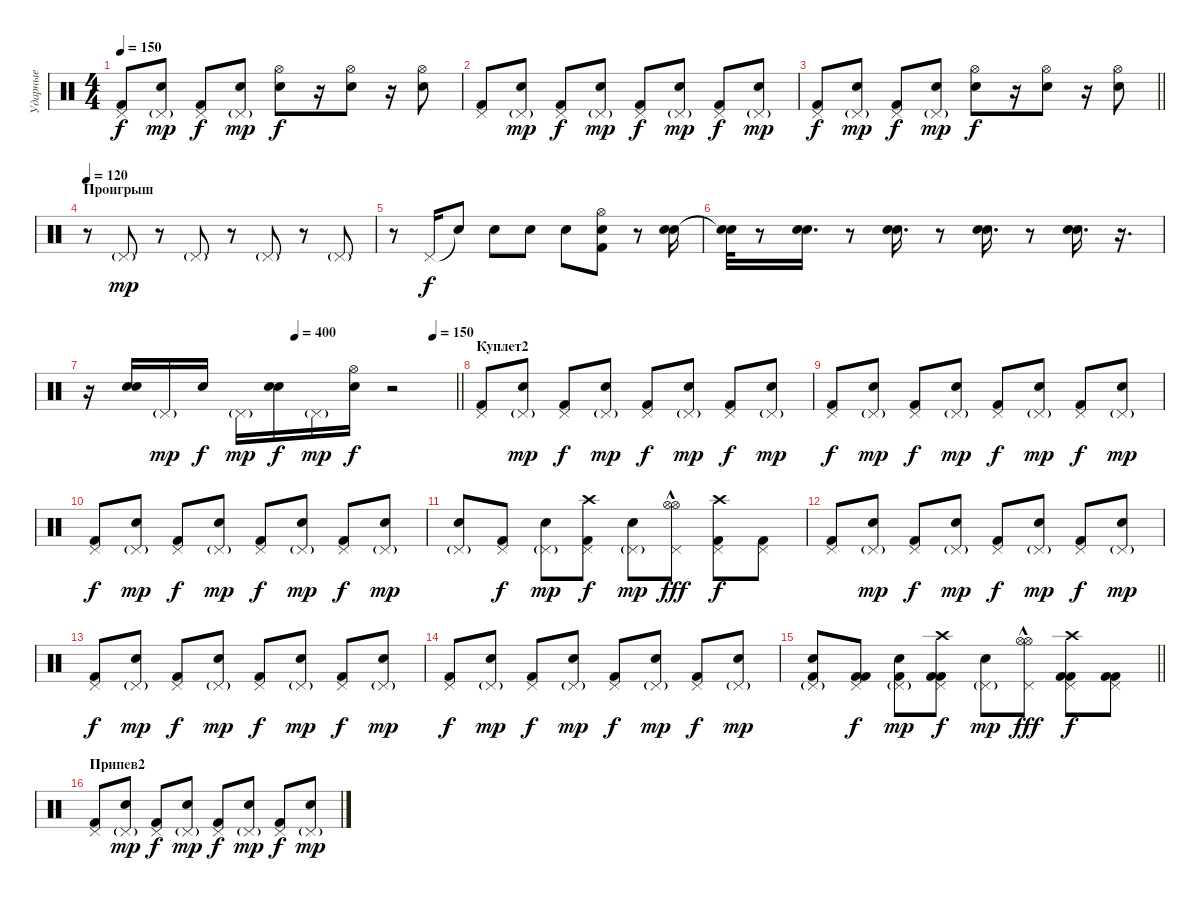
\track ("Ударные" "Ударные") {instrument percussion}
\staff {score}
\articulation defaults
\ts (4 4)
\tempo 150
\clef neutral
\ks c
("Kick (hit) 2" "Pedal Hi-Hat (hit)").8{dy f} ("Electric Snare (hit)" "Pedal Hi-Hat (hit)"{g}).8{dy mp} ("Kick (hit) 2" "Pedal Hi-Hat (hit)").8{dy f} ("Electric Snare (hit)" "Pedal Hi-Hat (hit)"{g}).8{dy mp} ("Hi-Hat (open)" "Electric Snare (hit)").8{dy f} r.16 ("Hi-Hat (open)" "Electric Snare (hit)").8 r.16 ("Hi-Hat (open)" "Electric Snare (hit)").8 |
("Kick (hit) 2" "Pedal Hi-Hat (hit)").8 ("Electric Snare (hit)" "Pedal Hi-Hat (hit)"{g}).8{dy mp} ("Kick (hit) 2" "Pedal Hi-Hat (hit)").8{dy f} ("Electric Snare (hit)" "Pedal Hi-Hat (hit)"{g}).8{dy mp} ("Kick (hit) 2" "Pedal Hi-Hat (hit)").8{dy f} ("Electric Snare (hit)" "Pedal Hi-Hat (hit)"{g}).8{dy mp} ("Kick (hit) 2" "Pedal Hi-Hat (hit)").8{dy f} ("Electric Snare (hit)" "Pedal Hi-Hat (hit)"{g}).8{dy mp} |
\barLineRight lightlight
("Kick (hit) 2" "Pedal Hi-Hat (hit)").8{dy f} ("Electric Snare (hit)" "Pedal Hi-Hat (hit)"{g}).8{dy mp} ("Kick (hit) 2" "Pedal Hi-Hat (hit)").8{dy f} ("Electric Snare (hit)" "Pedal Hi-Hat (hit)"{g}).8{dy mp} ("Hi-Hat (open)" "Electric Snare (hit)").8{dy f} r.16 ("Hi-Hat (open)" "Electric Snare (hit)").8 r.16 ("Hi-Hat (open)" "Electric Snare (hit)").8 |
\section ("" "Проигрыш")
\tempo 120
r.8 "Pedal Hi-Hat (hit)"{g}.8{dy mp} r.8 "Pedal Hi-Hat (hit)"{g}.8 r.8 "Pedal Hi-Hat (hit)"{g}.8 r.8 "Pedal Hi-Hat (hit)"{g}.8 |
r.8 "Pedal Hi-Hat (hit)".16{dy f} "Snare (hit)"{t}.8 "Electric Snare (hit)".8 "Electric Snare (hit)".8 "Electric Snare (hit)".8 ("Electric Snare (hit)" "Kick (hit) 2" "Hi-Hat (open)").8 r.8 ("Electric Snare (hit)" "Snare (hit) 2").16 |
("Snare (hit)"{t} "Snare (hit)"{t}).32 r.8 ("Electric Snare (hit)" "Snare (hit) 2").16{d} r.8 ("Electric Snare (hit)" "Snare (hit) 2").16{d} r.8 ("Electric Snare (hit)" "Snare (hit) 2").16{d} r.8 ("Electric Snare (hit)" "Snare (hit) 2").16{d} r.16{d} |
\tempo (400 0.5625)
\tempo (150 0.9375)
\barLineRight lightlight
r.16 ("Electric Snare (hit)" "Snare (hit) 2").16 "Pedal Hi-Hat (hit)"{g}.16{dy mp} "Snare (hit) 2".16{dy f} "Pedal Hi-Hat (hit)"{g}.16{dy mp} ("Electric Snare (hit)" "Snare (hit) 2").16{dy f} "Pedal Hi-Hat (hit)"{g}.16{dy mp} ("Snare (hit) 2" "Hi-Hat (open)").16{dy f} r.2 |
\section ("" "Куплет2")
("Kick (hit) 2" "Pedal Hi-Hat (hit)").8 ("Electric Snare (hit)" "Pedal Hi-Hat (hit)"{g}).8{dy mp} ("Kick (hit) 2" "Pedal Hi-Hat (hit)").8{dy f} ("Electric Snare (hit)" "Pedal Hi-Hat (hit)"{g}).8{dy mp} ("Kick (hit) 2" "Pedal Hi-Hat (hit)").8{dy f} ("Electric Snare (hit)" "Pedal Hi-Hat (hit)"{g}).8{dy mp} ("Kick (hit) 2" "Pedal Hi-Hat (hit)").8{dy f} ("Electric Snare (hit)" "Pedal Hi-Hat (hit)"{g}).8{dy mp} |
("Kick (hit) 2" "Pedal Hi-Hat (hit)").8{dy f} ("Electric Snare (hit)" "Pedal Hi-Hat (hit)"{g}).8{dy mp} ("Kick (hit) 2" "Pedal Hi-Hat (hit)").8{dy f} ("Electric Snare (hit)" "Pedal Hi-Hat (hit)"{g}).8{dy mp} ("Kick (hit) 2" "Pedal Hi-Hat (hit)").8{dy f} ("Electric Snare (hit)" "Pedal Hi-Hat (hit)"{g}).8{dy mp} ("Kick (hit) 2" "Pedal Hi-Hat (hit)").8{dy f} ("Electric Snare (hit)" "Pedal Hi-Hat (hit)"{g}).8{dy mp} |
("Kick (hit) 2" "Pedal Hi-Hat (hit)").8{dy f} ("Electric Snare (hit)" "Pedal Hi-Hat (hit)"{g}).8{dy mp} ("Kick (hit) 2" "Pedal Hi-Hat (hit)").8{dy f} ("Electric Snare (hit)" "Pedal Hi-Hat (hit)"{g}).8{dy mp} ("Kick (hit) 2" "Pedal Hi-Hat (hit)").8{dy f} ("Electric Snare (hit)" "Pedal Hi-Hat (hit)"{g}).8{dy mp} ("Kick (hit) 2" "Pedal Hi-Hat (hit)").8{dy f} ("Electric Snare (hit)" "Pedal Hi-Hat (hit)"{g}).8{dy mp} |
("Electric Snare (hit)" "Pedal Hi-Hat (hit)"{g}).8 ("Kick (hit) 2" "Pedal Hi-Hat (hit)").8{dy f} ("Electric Snare (hit)" "Pedal Hi-Hat (hit)"{g}).8{dy mp} ("Crash high (hit)" "Kick (hit) 2" "Pedal Hi-Hat (hit)").8{dy f} ("Electric Snare (hit)" "Pedal Hi-Hat (hit)"{g}).8{dy mp} ("Hi-Hat (open)"{hac} "Pedal Hi-Hat (hit)" "Hi-Hat (open)").8{dy fff} ("Crash high (hit)" "Kick (hit) 2" "Pedal Hi-Hat (hit)").8{dy f} ("Kick (hit) 2" "Pedal Hi-Hat (hit)").8 |
("Kick (hit) 2" "Pedal Hi-Hat (hit)").8 ("Electric Snare (hit)" "Pedal Hi-Hat (hit)"{g}).8{dy mp} ("Kick (hit) 2" "Pedal Hi-Hat (hit)").8{dy f} ("Electric Snare (hit)" "Pedal Hi-Hat (hit)"{g}).8{dy mp} ("Kick (hit) 2" "Pedal Hi-Hat (hit)").8{dy f} ("Electric Snare (hit)" "Pedal Hi-Hat (hit)"{g}).8{dy mp} ("Kick (hit) 2" "Pedal Hi-Hat (hit)").8{dy f} ("Electric Snare (hit)" "Pedal Hi-Hat (hit)"{g}).8{dy mp} |
("Kick (hit) 2" "Pedal Hi-Hat (hit)").8{dy f} ("Electric Snare (hit)" "Pedal Hi-Hat (hit)"{g}).8{dy mp} ("Kick (hit) 2" "Pedal Hi-Hat (hit)").8{dy f} ("Electric Snare (hit)" "Pedal Hi-Hat (hit)"{g}).8{dy mp} ("Kick (hit) 2" "Pedal Hi-Hat (hit)").8{dy f} ("Electric Snare (hit)" "Pedal Hi-Hat (hit)"{g}).8{dy mp} ("Kick (hit) 2" "Pedal Hi-Hat (hit)").8{dy f} ("Electric Snare (hit)" "Pedal Hi-Hat (hit)"{g}).8{dy mp} |
("Kick (hit) 2" "Pedal Hi-Hat (hit)").8{dy f} ("Electric Snare (hit)" "Pedal Hi-Hat (hit)"{g}).8{dy mp} ("Kick (hit) 2" "Pedal Hi-Hat (hit)").8{dy f} ("Electric Snare (hit)" "Pedal Hi-Hat (hit)"{g}).8{dy mp} ("Kick (hit) 2" "Pedal Hi-Hat (hit)").8{dy f} ("Electric Snare (hit)" "Pedal Hi-Hat (hit)"{g}).8{dy mp} ("Kick (hit) 2" "Pedal Hi-Hat (hit)").8{dy f} ("Electric Snare (hit)" "Pedal Hi-Hat (hit)"{g}).8{dy mp} |
\barLineRight lightlight
("Kick (hit) 2" "Electric Snare (hit)" "Pedal Hi-Hat (hit)"{g}).8 ("Kick (hit) 2" "Kick (hit) 2" "Pedal Hi-Hat (hit)").8{dy f} ("Kick (hit) 2" "Electric Snare (hit)" "Pedal Hi-Hat (hit)"{g}).8{dy mp} ("Kick (hit) 2" "Crash high (hit)" "Kick (hit) 2" "Pedal Hi-Hat (hit)").8{dy f} ("Electric Snare (hit)" "Pedal Hi-Hat (hit)"{g}).8{dy mp} ("Hi-Hat (open)"{hac} "Pedal Hi-Hat (hit)" "Hi-Hat (open)").8{dy fff} ("Kick (hit) 2" "Crash high (hit)" "Kick (hit) 2" "Pedal Hi-Hat (hit)").8{dy f} ("Kick (hit) 2" "Kick (hit) 2" "Pedal Hi-Hat (hit)").8 |
\section ("" "Припев2")
("Kick (hit) 2" "Pedal Hi-Hat (hit)").8 ("Electric Snare (hit)" "Pedal Hi-Hat (hit)"{g}).8{dy mp} ("Kick (hit) 2" "Pedal Hi-Hat (hit)").8{dy f} ("Electric Snare (hit)" "Pedal Hi-Hat (hit)"{g}).8{dy mp} ("Kick (hit) 2" "Pedal Hi-Hat (hit)").8{dy f} ("Electric Snare (hit)" "Pedal Hi-Hat (hit)"{g}).8{dy mp} ("Kick (hit) 2" "Pedal Hi-Hat (hit)").8{dy f} ("Electric Snare (hit)" "Pedal Hi-Hat (hit)"{g}).8{dy mp}
